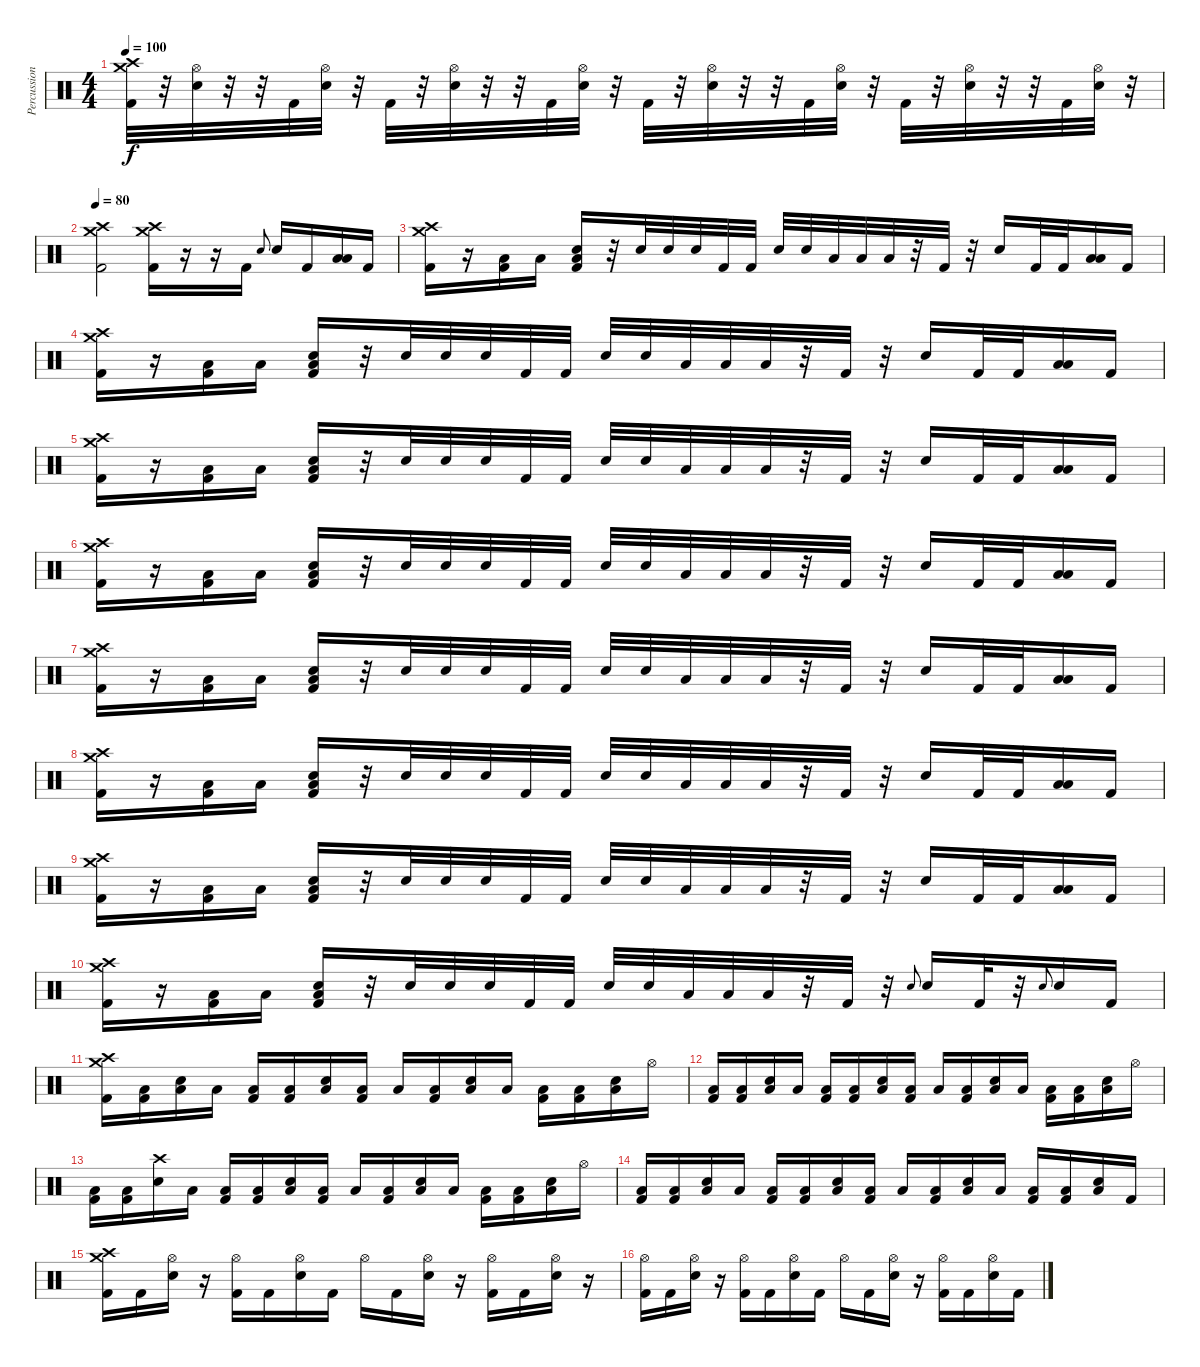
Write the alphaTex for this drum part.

\track ("Percussion" "Percussion") {instrument percussion}
\staff {score}
\articulation defaults
\ts (4 4)
\tempo 100
\clef neutral
\ks c
("Crash medium (hit)" "Crash high (hit)" "Kick (hit) 2").32{dy f} r.32 ("Hi-Hat (open)" "Electric Snare (hit)").32 r.32 r.32 "Kick (hit) 2".32 ("Hi-Hat (open)" "Electric Snare (hit)").32 r.32 "Kick (hit) 2".32 r.32 ("Hi-Hat (open)" "Electric Snare (hit)").32 r.32 r.32 "Kick (hit) 2".32 ("Hi-Hat (open)" "Electric Snare (hit)").32 r.32 "Kick (hit) 2".32 r.32 ("Hi-Hat (open)" "Electric Snare (hit)").32 r.32 r.32 "Kick (hit) 2".32 ("Hi-Hat (open)" "Electric Snare (hit)").32 r.32 "Kick (hit) 2".32 r.32 ("Hi-Hat (open)" "Electric Snare (hit)").32 r.32 r.32 "Kick (hit) 2".32 ("Hi-Hat (open)" "Electric Snare (hit)").32 r.32 |
\tempo 80
("Crash medium (hit)" "Crash high (hit)" "Kick (hit) 2").2 ("Crash medium (hit)" "Crash high (hit)" "Kick (hit) 2").16 r.16 r.16 "Kick (hit) 2".16 "Electric Snare (hit)".8{gr onbeat} "Electric Snare (hit)".16 "Kick (hit) 2".16 ("Low Tom (hit)" "Low Floor Tom (hit)").16 "Kick (hit) 2".16 |
("Crash medium (hit)" "Crash high (hit)" "Kick (hit) 2").16 r.16 ("Low Floor Tom (hit)" "Kick (hit) 2").16 "Low Floor Tom (hit)".16 ("Low Floor Tom (hit)" "Electric Snare (hit)" "Kick (hit) 2").16 r.32 "Electric Snare (hit)".32 "Electric Snare (hit)".32 "Electric Snare (hit)".32 "Kick (hit) 2".32 "Kick (hit) 2".32 "Electric Snare (hit)".32 "Electric Snare (hit)".32 "Low Tom (hit)".32 "Low Tom (hit)".32 "Low Floor Tom (hit)".32 r.32 "Kick (hit) 2".32 r.32 "Electric Snare (hit)".16 "Kick (hit) 2".32 "Kick (hit) 2".32 ("Low Tom (hit)" "Low Floor Tom (hit)").16 "Kick (hit) 2".16 |
("Crash medium (hit)" "Crash high (hit)" "Kick (hit) 2").16 r.16 ("Low Floor Tom (hit)" "Kick (hit) 2").16 "Low Floor Tom (hit)".16 ("Low Floor Tom (hit)" "Electric Snare (hit)" "Kick (hit) 2").16 r.32 "Electric Snare (hit)".32 "Electric Snare (hit)".32 "Electric Snare (hit)".32 "Kick (hit) 2".32 "Kick (hit) 2".32 "Electric Snare (hit)".32 "Electric Snare (hit)".32 "Low Tom (hit)".32 "Low Tom (hit)".32 "Low Floor Tom (hit)".32 r.32 "Kick (hit) 2".32 r.32 "Electric Snare (hit)".16 "Kick (hit) 2".32 "Kick (hit) 2".32 ("Low Tom (hit)" "Low Floor Tom (hit)").16 "Kick (hit) 2".16 |
("Crash medium (hit)" "Crash high (hit)" "Kick (hit) 2").16 r.16 ("Low Floor Tom (hit)" "Kick (hit) 2").16 "Low Floor Tom (hit)".16 ("Low Floor Tom (hit)" "Electric Snare (hit)" "Kick (hit) 2").16 r.32 "Electric Snare (hit)".32 "Electric Snare (hit)".32 "Electric Snare (hit)".32 "Kick (hit) 2".32 "Kick (hit) 2".32 "Electric Snare (hit)".32 "Electric Snare (hit)".32 "Low Tom (hit)".32 "Low Tom (hit)".32 "Low Floor Tom (hit)".32 r.32 "Kick (hit) 2".32 r.32 "Electric Snare (hit)".16 "Kick (hit) 2".32 "Kick (hit) 2".32 ("Low Tom (hit)" "Low Floor Tom (hit)").16 "Kick (hit) 2".16 |
("Crash medium (hit)" "Crash high (hit)" "Kick (hit) 2").16 r.16 ("Low Floor Tom (hit)" "Kick (hit) 2").16 "Low Floor Tom (hit)".16 ("Low Floor Tom (hit)" "Electric Snare (hit)" "Kick (hit) 2").16 r.32 "Electric Snare (hit)".32 "Electric Snare (hit)".32 "Electric Snare (hit)".32 "Kick (hit) 2".32 "Kick (hit) 2".32 "Electric Snare (hit)".32 "Electric Snare (hit)".32 "Low Tom (hit)".32 "Low Tom (hit)".32 "Low Floor Tom (hit)".32 r.32 "Kick (hit) 2".32 r.32 "Electric Snare (hit)".16 "Kick (hit) 2".32 "Kick (hit) 2".32 ("Low Tom (hit)" "Low Floor Tom (hit)").16 "Kick (hit) 2".16 |
("Crash medium (hit)" "Crash high (hit)" "Kick (hit) 2").16 r.16 ("Low Floor Tom (hit)" "Kick (hit) 2").16 "Low Floor Tom (hit)".16 ("Low Floor Tom (hit)" "Electric Snare (hit)" "Kick (hit) 2").16 r.32 "Electric Snare (hit)".32 "Electric Snare (hit)".32 "Electric Snare (hit)".32 "Kick (hit) 2".32 "Kick (hit) 2".32 "Electric Snare (hit)".32 "Electric Snare (hit)".32 "Low Tom (hit)".32 "Low Tom (hit)".32 "Low Floor Tom (hit)".32 r.32 "Kick (hit) 2".32 r.32 "Electric Snare (hit)".16 "Kick (hit) 2".32 "Kick (hit) 2".32 ("Low Tom (hit)" "Low Floor Tom (hit)").16 "Kick (hit) 2".16 |
("Crash medium (hit)" "Crash high (hit)" "Kick (hit) 2").16 r.16 ("Low Floor Tom (hit)" "Kick (hit) 2").16 "Low Floor Tom (hit)".16 ("Low Floor Tom (hit)" "Electric Snare (hit)" "Kick (hit) 2").16 r.32 "Electric Snare (hit)".32 "Electric Snare (hit)".32 "Electric Snare (hit)".32 "Kick (hit) 2".32 "Kick (hit) 2".32 "Electric Snare (hit)".32 "Electric Snare (hit)".32 "Low Tom (hit)".32 "Low Tom (hit)".32 "Low Floor Tom (hit)".32 r.32 "Kick (hit) 2".32 r.32 "Electric Snare (hit)".16 "Kick (hit) 2".32 "Kick (hit) 2".32 ("Low Tom (hit)" "Low Floor Tom (hit)").16 "Kick (hit) 2".16 |
("Crash medium (hit)" "Crash high (hit)" "Kick (hit) 2").16 r.16 ("Low Floor Tom (hit)" "Kick (hit) 2").16 "Low Floor Tom (hit)".16 ("Low Floor Tom (hit)" "Electric Snare (hit)" "Kick (hit) 2").16 r.32 "Electric Snare (hit)".32 "Electric Snare (hit)".32 "Electric Snare (hit)".32 "Kick (hit) 2".32 "Kick (hit) 2".32 "Electric Snare (hit)".32 "Electric Snare (hit)".32 "Low Tom (hit)".32 "Low Tom (hit)".32 "Low Floor Tom (hit)".32 r.32 "Kick (hit) 2".32 r.32 "Electric Snare (hit)".16 "Kick (hit) 2".32 "Kick (hit) 2".32 ("Low Tom (hit)" "Low Floor Tom (hit)").16 "Kick (hit) 2".16 |
("Crash medium (hit)" "Crash high (hit)" "Kick (hit) 2").16 r.16 ("Low Floor Tom (hit)" "Kick (hit) 2").16 "Low Floor Tom (hit)".16 ("Low Floor Tom (hit)" "Electric Snare (hit)" "Kick (hit) 2").16 r.32 "Electric Snare (hit)".32 "Electric Snare (hit)".32 "Electric Snare (hit)".32 "Kick (hit) 2".32 "Kick (hit) 2".32 "Electric Snare (hit)".32 "Electric Snare (hit)".32 "Low Tom (hit)".32 "Low Tom (hit)".32 "Low Floor Tom (hit)".32 r.32 "Kick (hit) 2".32 r.32 "Electric Snare (hit)".8{gr onbeat} "Electric Snare (hit)".16 "Kick (hit) 2".32 r.32 "Electric Snare (hit)".8{gr onbeat} "Electric Snare (hit)".16 "Kick (hit) 2".16 |
("Crash medium (hit)" "Crash high (hit)" "Kick (hit) 2").16 ("Low Floor Tom (hit)" "Kick (hit) 2").16 ("Low Floor Tom (hit)" "Electric Snare (hit)").16 "Low Floor Tom (hit)".16 ("Low Floor Tom (hit)" "Kick (hit) 2").16 ("Low Floor Tom (hit)" "Kick (hit) 2").16 ("Low Floor Tom (hit)" "Electric Snare (hit)").16 ("Low Floor Tom (hit)" "Kick (hit) 2").16 "Low Floor Tom (hit)".16 ("Low Floor Tom (hit)" "Kick (hit) 2").16 ("Low Floor Tom (hit)" "Electric Snare (hit)").16 "Low Floor Tom (hit)".16 ("Low Floor Tom (hit)" "Kick (hit) 2").16 ("Low Floor Tom (hit)" "Kick (hit) 2").16 ("Low Floor Tom (hit)" "Electric Snare (hit)").16 "Hi-Hat (open)".16 |
("Low Floor Tom (hit)" "Kick (hit) 2").16 ("Low Floor Tom (hit)" "Kick (hit) 2").16 ("Low Floor Tom (hit)" "Electric Snare (hit)").16 "Low Floor Tom (hit)".16 ("Low Floor Tom (hit)" "Kick (hit) 2").16 ("Low Floor Tom (hit)" "Kick (hit) 2").16 ("Low Floor Tom (hit)" "Electric Snare (hit)").16 ("Low Floor Tom (hit)" "Kick (hit) 2").16 "Low Floor Tom (hit)".16 ("Low Floor Tom (hit)" "Kick (hit) 2").16 ("Low Floor Tom (hit)" "Electric Snare (hit)").16 "Low Floor Tom (hit)".16 ("Low Floor Tom (hit)" "Kick (hit) 2").16 ("Low Floor Tom (hit)" "Kick (hit) 2").16 ("Low Floor Tom (hit)" "Electric Snare (hit)").16 "Hi-Hat (open)".16 |
("Low Floor Tom (hit)" "Kick (hit) 2").16 ("Low Floor Tom (hit)" "Kick (hit) 2").16 ("Crash high (hit)" "Electric Snare (hit)").16 "Low Floor Tom (hit)".16 ("Low Floor Tom (hit)" "Kick (hit) 2").16 ("Low Floor Tom (hit)" "Kick (hit) 2").16 ("Low Floor Tom (hit)" "Electric Snare (hit)").16 ("Low Floor Tom (hit)" "Kick (hit) 2").16 "Low Floor Tom (hit)".16 ("Low Floor Tom (hit)" "Kick (hit) 2").16 ("Low Floor Tom (hit)" "Electric Snare (hit)").16 "Low Floor Tom (hit)".16 ("Low Floor Tom (hit)" "Kick (hit) 2").16 ("Low Floor Tom (hit)" "Kick (hit) 2").16 ("Low Floor Tom (hit)" "Electric Snare (hit)").16 "Hi-Hat (open)".16 |
("Low Floor Tom (hit)" "Kick (hit) 2").16 ("Low Floor Tom (hit)" "Kick (hit) 2").16 ("Low Floor Tom (hit)" "Electric Snare (hit)").16 "Low Floor Tom (hit)".16 ("Low Floor Tom (hit)" "Kick (hit) 2").16 ("Low Floor Tom (hit)" "Kick (hit) 2").16 ("Low Floor Tom (hit)" "Electric Snare (hit)").16 ("Low Floor Tom (hit)" "Kick (hit) 2").16 "Low Floor Tom (hit)".16 ("Low Floor Tom (hit)" "Kick (hit) 2").16 ("Low Floor Tom (hit)" "Electric Snare (hit)").16 "Low Floor Tom (hit)".16 ("Low Floor Tom (hit)" "Kick (hit) 2").16 ("Low Floor Tom (hit)" "Kick (hit) 2").16 ("Low Floor Tom (hit)" "Electric Snare (hit)").16 "Kick (hit) 2".16 |
("Crash medium (hit)" "Crash high (hit)" "Kick (hit) 2").16 "Kick (hit) 2".16 ("Hi-Hat (open)" "Electric Snare (hit)").16 r.16 ("Hi-Hat (open)" "Kick (hit) 2").16 "Kick (hit) 2".16 ("Hi-Hat (open)" "Electric Snare (hit)").16 "Kick (hit) 2".16 "Hi-Hat (open)".16 "Kick (hit) 2".16 ("Hi-Hat (open)" "Electric Snare (hit)").16 r.16 ("Hi-Hat (open)" "Kick (hit) 2").16 "Kick (hit) 2".16 ("Hi-Hat (open)" "Electric Snare (hit)").16 r.16 |
("Hi-Hat (open)" "Kick (hit) 2").16 "Kick (hit) 2".16 ("Hi-Hat (open)" "Electric Snare (hit)").16 r.16 ("Hi-Hat (open)" "Kick (hit) 2").16 "Kick (hit) 2".16 ("Hi-Hat (open)" "Electric Snare (hit)").16 "Kick (hit) 2".16 "Hi-Hat (open)".16 "Kick (hit) 2".16 ("Hi-Hat (open)" "Electric Snare (hit)").16 r.16 ("Hi-Hat (open)" "Kick (hit) 2").16 "Kick (hit) 2".16 ("Hi-Hat (open)" "Electric Snare (hit)").16 "Kick (hit) 2".16
